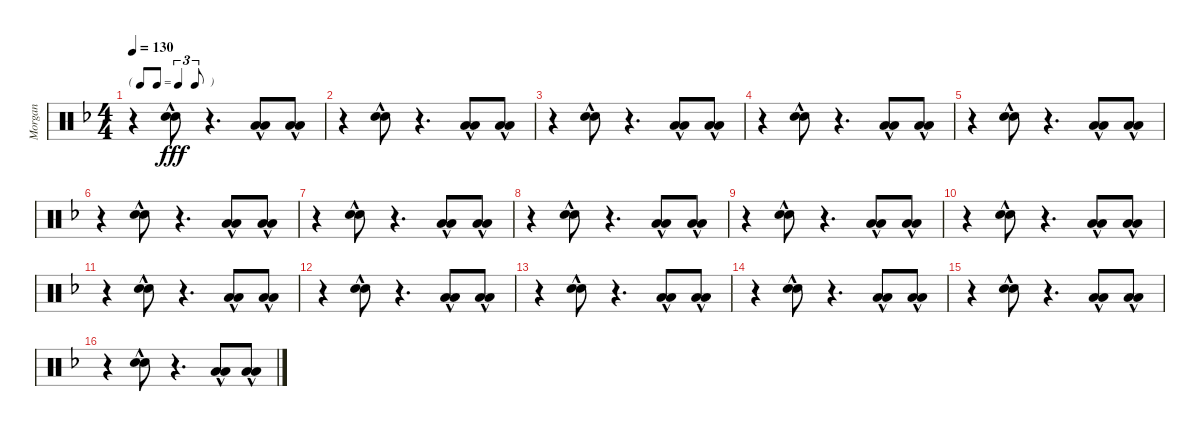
\track ("Morgan" "Morgan") {instrument percussion}
\staff {score}
\articulation defaults
\ts (4 4)
\tf triplet8th
\tempo 130
\clef neutral
\ks dminor
r.4{dy fff} ("Snare (hit) 2"{hac} "Snare (hit) 2"{hac}).8 r.4{d} ("Low Tom (hit)"{hac} "Low Tom (hit)"{hac}).8 ("Low Tom (hit)"{hac} "Low Tom (hit)"{hac}).8 |
r.4 ("Snare (hit) 2"{hac} "Snare (hit) 2"{hac}).8 r.4{d} ("Low Tom (hit)"{hac} "Low Tom (hit)"{hac}).8 ("Low Tom (hit)"{hac} "Low Tom (hit)"{hac}).8 |
r.4 ("Snare (hit) 2"{hac} "Snare (hit) 2"{hac}).8 r.4{d} ("Low Tom (hit)"{hac} "Low Tom (hit)"{hac}).8 ("Low Tom (hit)"{hac} "Low Tom (hit)"{hac}).8 |
r.4 ("Snare (hit) 2"{hac} "Snare (hit) 2"{hac}).8 r.4{d} ("Low Tom (hit)"{hac} "Low Tom (hit)"{hac}).8 ("Low Tom (hit)"{hac} "Low Tom (hit)"{hac}).8 |
r.4 ("Snare (hit) 2"{hac} "Snare (hit) 2"{hac}).8 r.4{d} ("Low Tom (hit)"{hac} "Low Tom (hit)"{hac}).8 ("Low Tom (hit)"{hac} "Low Tom (hit)"{hac}).8 |
r.4 ("Snare (hit) 2"{hac} "Snare (hit) 2"{hac}).8 r.4{d} ("Low Tom (hit)"{hac} "Low Tom (hit)"{hac}).8 ("Low Tom (hit)"{hac} "Low Tom (hit)"{hac}).8 |
r.4 ("Snare (hit) 2"{hac} "Snare (hit) 2"{hac}).8 r.4{d} ("Low Tom (hit)"{hac} "Low Tom (hit)"{hac}).8 ("Low Tom (hit)"{hac} "Low Tom (hit)"{hac}).8 |
r.4 ("Snare (hit) 2"{hac} "Snare (hit) 2"{hac}).8 r.4{d} ("Low Tom (hit)"{hac} "Low Tom (hit)"{hac}).8 ("Low Tom (hit)"{hac} "Low Tom (hit)"{hac}).8 |
r.4 ("Snare (hit) 2"{hac} "Snare (hit) 2"{hac}).8 r.4{d} ("Low Tom (hit)"{hac} "Low Tom (hit)"{hac}).8 ("Low Tom (hit)"{hac} "Low Tom (hit)"{hac}).8 |
r.4 ("Snare (hit) 2"{hac} "Snare (hit) 2"{hac}).8 r.4{d} ("Low Tom (hit)"{hac} "Low Tom (hit)"{hac}).8 ("Low Tom (hit)"{hac} "Low Tom (hit)"{hac}).8 |
r.4 ("Snare (hit) 2"{hac} "Snare (hit) 2"{hac}).8 r.4{d} ("Low Tom (hit)"{hac} "Low Tom (hit)"{hac}).8 ("Low Tom (hit)"{hac} "Low Tom (hit)"{hac}).8 |
r.4 ("Snare (hit) 2"{hac} "Snare (hit) 2"{hac}).8 r.4{d} ("Low Tom (hit)"{hac} "Low Tom (hit)"{hac}).8 ("Low Tom (hit)"{hac} "Low Tom (hit)"{hac}).8 |
r.4 ("Snare (hit) 2"{hac} "Snare (hit) 2"{hac}).8 r.4{d} ("Low Tom (hit)"{hac} "Low Tom (hit)"{hac}).8 ("Low Tom (hit)"{hac} "Low Tom (hit)"{hac}).8 |
r.4 ("Snare (hit) 2"{hac} "Snare (hit) 2"{hac}).8 r.4{d} ("Low Tom (hit)"{hac} "Low Tom (hit)"{hac}).8 ("Low Tom (hit)"{hac} "Low Tom (hit)"{hac}).8 |
r.4 ("Snare (hit) 2"{hac} "Snare (hit) 2"{hac}).8 r.4{d} ("Low Tom (hit)"{hac} "Low Tom (hit)"{hac}).8 ("Low Tom (hit)"{hac} "Low Tom (hit)"{hac}).8 |
r.4 ("Snare (hit) 2"{hac} "Snare (hit) 2"{hac}).8 r.4{d} ("Low Tom (hit)"{hac} "Low Tom (hit)"{hac}).8 ("Low Tom (hit)"{hac} "Low Tom (hit)"{hac}).8
